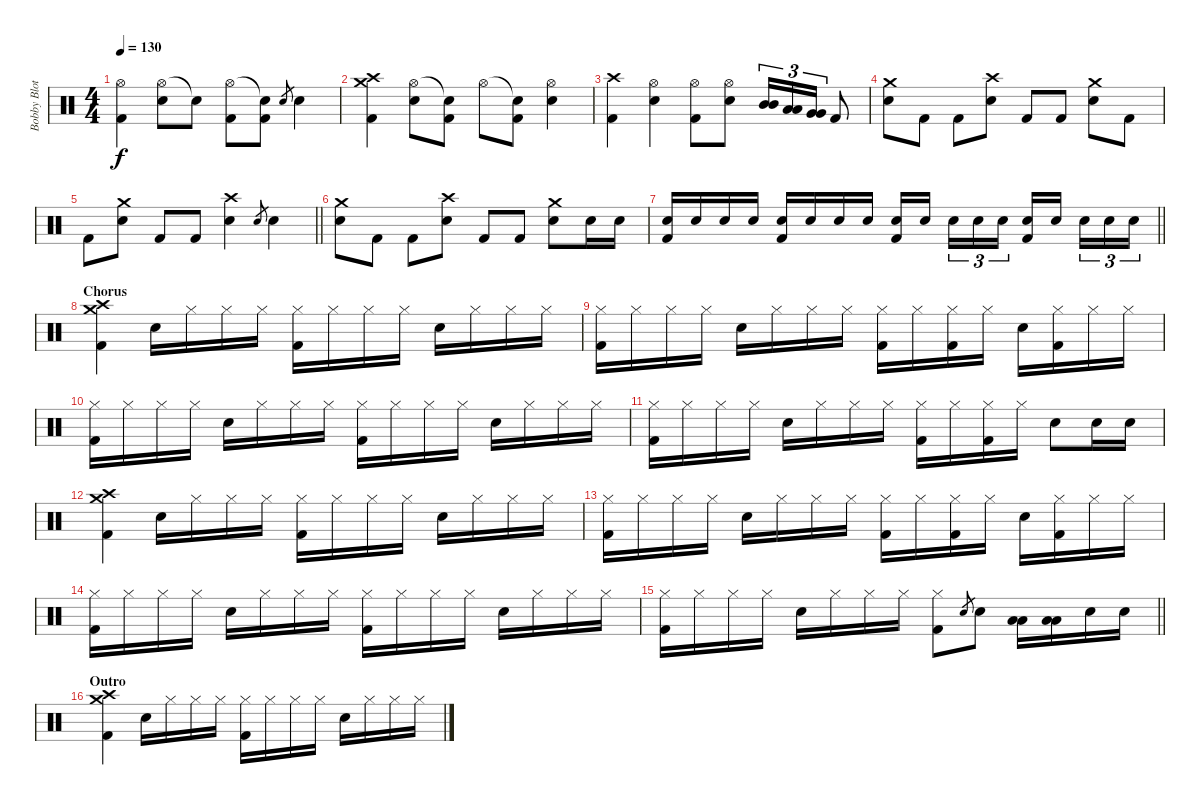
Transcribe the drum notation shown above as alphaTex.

\track ("Bobby Blotzer - Drums" "Bobby Blot") {instrument percussion}
\staff {score}
\articulation defaults
\ts (4 4)
\tempo 130
\clef neutral
\ks c
("Hi-Hat (open)" "Kick (hit) 2").4{dy f} ("Hi-Hat (open)" "Snare (hit) 2").8 "Snare (hit)"{t}.8 ("Hi-Hat (open)" "Kick (hit) 2").8 ("Snare (hit)"{t} "Kick (hit) 2").8 "Snare (hit) 2".8{gr} "Snare (hit) 2".4 |
("Crash medium (hit)" "Crash high (hit)" "Kick (hit) 2").4 ("Hi-Hat (open)" "Snare (hit) 2").8 ("Snare (hit)"{t} "Kick (hit) 2").8 "Hi-Hat (open)".8 ("Snare (hit)"{t} "Kick (hit) 2").8 ("Hi-Hat (open)" "Snare (hit) 2").4 |
("Crash high (hit)" "Kick (hit) 2").4 ("Hi-Hat (open)" "Snare (hit) 2").4{beam merge} ("Hi-Hat (open)" "Kick (hit) 2").8 ("Hi-Hat (open)" "Snare (hit) 2").8 ("Mid Tom (hit)" "Mid Tom (hit)").16{tu (3 2)} ("Low Tom (hit)" "Low Tom (hit)").16{tu (3 2)} ("Very Low Tom (hit)" "Very Low Tom (hit)").16{tu (3 2)} "Kick (hit) 2".8 |
("Crash medium (hit)" "Snare (hit) 2").8 "Kick (hit) 2".8 "Kick (hit) 2".8 ("Crash high (hit)" "Snare (hit) 2").8 "Kick (hit) 2".8 "Kick (hit) 2".8 ("Crash medium (hit)" "Snare (hit) 2").8 "Kick (hit) 2".8 |
\barLineRight lightlight "Kick (hit) 2".8
("Crash medium (hit)" "Snare (hit) 2").8 "Kick (hit) 2".8 "Kick (hit) 2".8 ("Crash high (hit)" "Snare (hit) 2").4 "Snare (hit) 2".8{gr} "Snare (hit) 2".4 |
("Crash medium (hit)" "Snare (hit) 2").8 "Kick (hit) 2".8 "Kick (hit) 2".8 ("Crash high (hit)" "Snare (hit) 2").8 "Kick (hit) 2".8 "Kick (hit) 2".8 ("Crash medium (hit)" "Snare (hit) 2").8 "Snare (hit) 2".16 "Snare (hit) 2".16 |
\barLineRight lightlight
("Snare (hit) 2" "Kick (hit) 2").16 "Snare (hit) 2".16 "Snare (hit) 2".16 "Snare (hit) 2".16 ("Snare (hit) 2" "Kick (hit) 2").16 "Snare (hit) 2".16 "Snare (hit) 2".16 "Snare (hit) 2".16 ("Snare (hit) 2" "Kick (hit) 2").16 "Snare (hit) 2".16{beam splitsecondary} "Snare (hit) 2".16{tu (3 2)} "Snare (hit) 2".16{tu (3 2)} "Snare (hit) 2".16{tu (3 2)} ("Snare (hit) 2" "Kick (hit) 2").16 "Snare (hit) 2".16{beam splitsecondary} "Snare (hit) 2".16{tu (3 2)} "Snare (hit) 2".16{tu (3 2)} "Snare (hit) 2".16{tu (3 2)} |
\section ("" "Chorus")
("Crash medium (hit)" "Crash high (hit)" "Kick (hit) 2").4 "Snare (hit) 2".16 "Hi-Hat (closed)".16 "Hi-Hat (closed)".16 "Hi-Hat (closed)".16 ("Hi-Hat (closed)" "Kick (hit) 2").16 "Hi-Hat (closed)".16 "Hi-Hat (closed)".16 "Hi-Hat (closed)".16 "Snare (hit) 2".16 "Hi-Hat (closed)".16 "Hi-Hat (closed)".16 "Hi-Hat (closed)".16 |
("Hi-Hat (closed)" "Kick (hit) 2").16 "Hi-Hat (closed)".16 "Hi-Hat (closed)".16 "Hi-Hat (closed)".16 "Snare (hit) 2".16 "Hi-Hat (closed)".16 "Hi-Hat (closed)".16 "Hi-Hat (closed)".16 ("Hi-Hat (closed)" "Kick (hit) 2").16 "Hi-Hat (closed)".16 ("Hi-Hat (closed)" "Kick (hit) 2").16 "Hi-Hat (closed)".16 "Snare (hit) 2".16 ("Hi-Hat (closed)" "Kick (hit) 2").16 "Hi-Hat (closed)".16 "Hi-Hat (closed)".16 |
("Hi-Hat (closed)" "Kick (hit) 2").16 "Hi-Hat (closed)".16 "Hi-Hat (closed)".16 "Hi-Hat (closed)".16 "Snare (hit) 2".16 "Hi-Hat (closed)".16 "Hi-Hat (closed)".16 "Hi-Hat (closed)".16 ("Hi-Hat (closed)" "Kick (hit) 2").16 "Hi-Hat (closed)".16 "Hi-Hat (closed)".16 "Hi-Hat (closed)".16 "Snare (hit) 2".16 "Hi-Hat (closed)".16 "Hi-Hat (closed)".16 "Hi-Hat (closed)".16 |
("Hi-Hat (closed)" "Kick (hit) 2").16 "Hi-Hat (closed)".16 "Hi-Hat (closed)".16 "Hi-Hat (closed)".16 "Snare (hit) 2".16 "Hi-Hat (closed)".16 "Hi-Hat (closed)".16 "Hi-Hat (closed)".16 ("Hi-Hat (closed)" "Kick (hit) 2").16 "Hi-Hat (closed)".16 ("Hi-Hat (closed)" "Kick (hit) 2").16 "Hi-Hat (closed)".16 "Snare (hit) 2".8 "Snare (hit) 2".16 "Snare (hit) 2".16 |
("Crash medium (hit)" "Crash high (hit)" "Kick (hit) 2").4 "Snare (hit) 2".16 "Hi-Hat (closed)".16 "Hi-Hat (closed)".16 "Hi-Hat (closed)".16 ("Hi-Hat (closed)" "Kick (hit) 2").16 "Hi-Hat (closed)".16 "Hi-Hat (closed)".16 "Hi-Hat (closed)".16 "Snare (hit) 2".16 "Hi-Hat (closed)".16 "Hi-Hat (closed)".16 "Hi-Hat (closed)".16 |
("Hi-Hat (closed)" "Kick (hit) 2").16 "Hi-Hat (closed)".16 "Hi-Hat (closed)".16 "Hi-Hat (closed)".16 "Snare (hit) 2".16 "Hi-Hat (closed)".16 "Hi-Hat (closed)".16 "Hi-Hat (closed)".16 ("Hi-Hat (closed)" "Kick (hit) 2").16 "Hi-Hat (closed)".16 ("Hi-Hat (closed)" "Kick (hit) 2").16 "Hi-Hat (closed)".16 "Snare (hit) 2".16 ("Hi-Hat (closed)" "Kick (hit) 2").16 "Hi-Hat (closed)".16 "Hi-Hat (closed)".16 |
("Hi-Hat (closed)" "Kick (hit) 2").16 "Hi-Hat (closed)".16 "Hi-Hat (closed)".16 "Hi-Hat (closed)".16 "Snare (hit) 2".16 "Hi-Hat (closed)".16 "Hi-Hat (closed)".16 "Hi-Hat (closed)".16 ("Hi-Hat (closed)" "Kick (hit) 2").16 "Hi-Hat (closed)".16 "Hi-Hat (closed)".16 "Hi-Hat (closed)".16 "Snare (hit) 2".16 "Hi-Hat (closed)".16 "Hi-Hat (closed)".16 "Hi-Hat (closed)".16 |
\barLineRight lightlight
("Hi-Hat (closed)" "Kick (hit) 2").16 "Hi-Hat (closed)".16 "Hi-Hat (closed)".16 "Hi-Hat (closed)".16 "Snare (hit) 2".16 "Hi-Hat (closed)".16 "Hi-Hat (closed)".16 "Hi-Hat (closed)".16 ("Hi-Hat (closed)" "Kick (hit) 2").8 "Snare (hit) 2".8{gr} "Snare (hit) 2".8 ("Low Tom (hit)" "Low Tom (hit)").16 ("Low Tom (hit)" "Low Tom (hit)").16 "Snare (hit) 2".16 "Snare (hit) 2".16 |
\section ("" "Outro")
("Crash medium (hit)" "Crash high (hit)" "Kick (hit) 2").4 "Snare (hit) 2".16 "Hi-Hat (closed)".16 "Hi-Hat (closed)".16 "Hi-Hat (closed)".16 ("Hi-Hat (closed)" "Kick (hit) 2").16 "Hi-Hat (closed)".16 "Hi-Hat (closed)".16 "Hi-Hat (closed)".16 "Snare (hit) 2".16 "Hi-Hat (closed)".16 "Hi-Hat (closed)".16 "Hi-Hat (closed)".16
